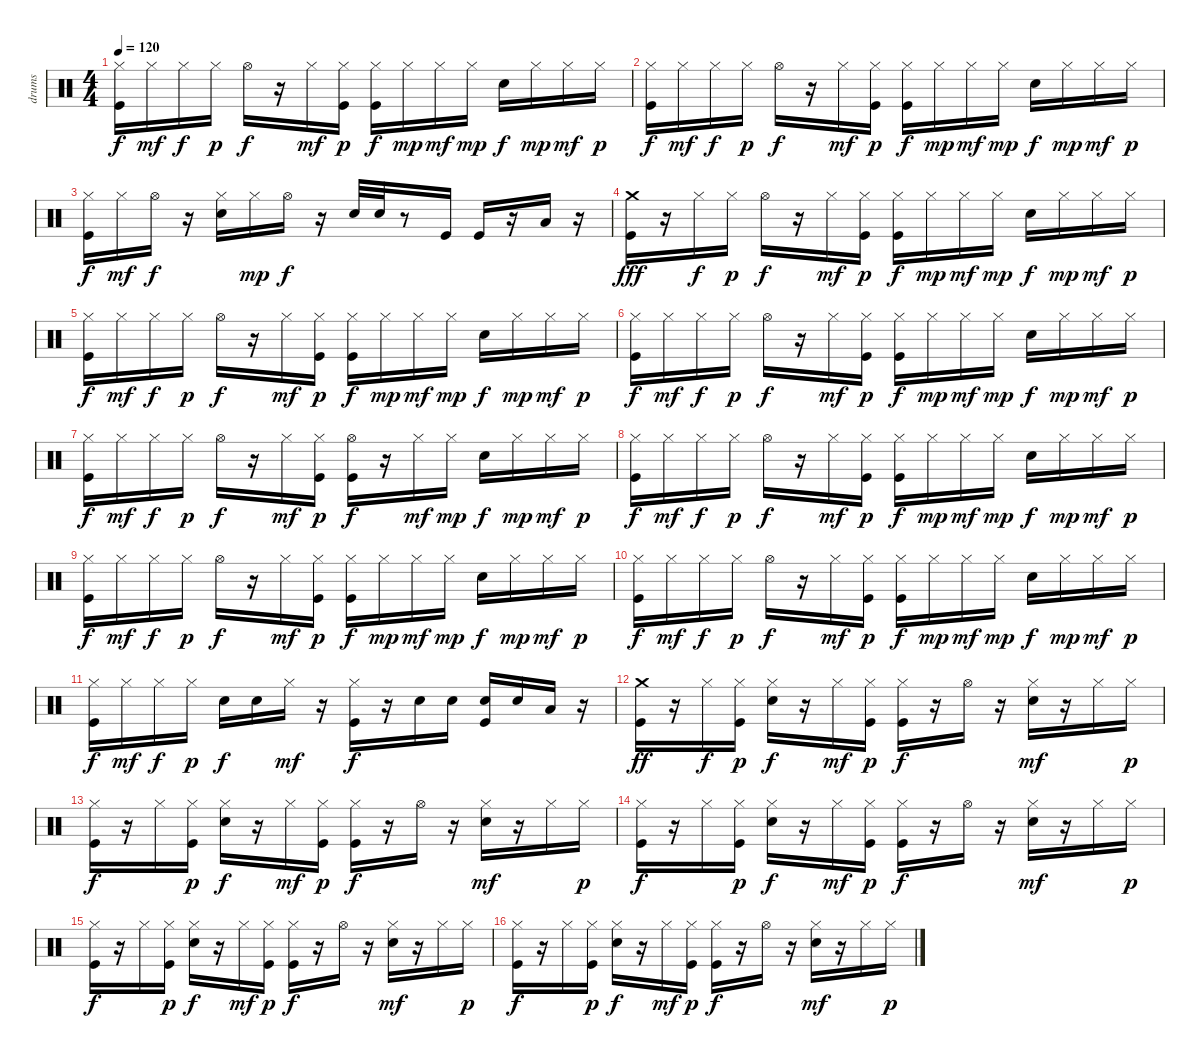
\track ("drums" "drums") {instrument percussion}
\staff {score}
\articulation defaults
\ts (4 4)
\tempo 120
\clef neutral
\ks c
("Kick (hit)" "Hi-Hat (closed)").16{dy f} "Hi-Hat (closed)".16{dy mf} "Hi-Hat (closed)".16{dy f} "Hi-Hat (closed)".16{dy p} "Hi-Hat (open)".16{dy f} r.16 "Hi-Hat (closed)".16{dy mf} ("Kick (hit)" "Hi-Hat (closed)").16{dy p} ("Kick (hit)" "Hi-Hat (closed)").16{dy f} "Hi-Hat (closed)".16{dy mp} "Hi-Hat (closed)".16{dy mf} "Hi-Hat (closed)".16{dy mp} "Electric Snare (hit)".16{dy f} "Hi-Hat (closed)".16{dy mp} "Hi-Hat (closed)".16{dy mf} "Hi-Hat (closed)".16{dy p} |
("Kick (hit)" "Hi-Hat (closed)").16{dy f} "Hi-Hat (closed)".16{dy mf} "Hi-Hat (closed)".16{dy f} "Hi-Hat (closed)".16{dy p} "Hi-Hat (open)".16{dy f} r.16 "Hi-Hat (closed)".16{dy mf} ("Kick (hit)" "Hi-Hat (closed)").16{dy p} ("Kick (hit)" "Hi-Hat (closed)").16{dy f} "Hi-Hat (closed)".16{dy mp} "Hi-Hat (closed)".16{dy mf} "Hi-Hat (closed)".16{dy mp} "Electric Snare (hit)".16{dy f} "Hi-Hat (closed)".16{dy mp} "Hi-Hat (closed)".16{dy mf} "Hi-Hat (closed)".16{dy p} |
("Kick (hit)" "Hi-Hat (closed)").16{dy f} "Hi-Hat (closed)".16{dy mf} "Hi-Hat (open)".16{dy f} r.16 ("Electric Snare (hit)" "Hi-Hat (closed)").16 "Hi-Hat (closed)".16{dy mp} "Hi-Hat (open)".16{dy f} r.16 "Electric Snare (hit)".32 "Electric Snare (hit)".32 r.8 "Kick (hit)".16 "Kick (hit)".16 r.16 "Low Tom (hit)".16 r.16 |
("Kick (hit)" "Crash medium (hit)").16{dy fff} r.16 "Hi-Hat (closed)".16{dy f} "Hi-Hat (closed)".16{dy p} "Hi-Hat (open)".16{dy f} r.16 "Hi-Hat (closed)".16{dy mf} ("Kick (hit)" "Hi-Hat (closed)").16{dy p} ("Kick (hit)" "Hi-Hat (closed)").16{dy f} "Hi-Hat (closed)".16{dy mp} "Hi-Hat (closed)".16{dy mf} "Hi-Hat (closed)".16{dy mp} "Electric Snare (hit)".16{dy f} "Hi-Hat (closed)".16{dy mp} "Hi-Hat (closed)".16{dy mf} "Hi-Hat (closed)".16{dy p} |
("Kick (hit)" "Hi-Hat (closed)").16{dy f} "Hi-Hat (closed)".16{dy mf} "Hi-Hat (closed)".16{dy f} "Hi-Hat (closed)".16{dy p} "Hi-Hat (open)".16{dy f} r.16 "Hi-Hat (closed)".16{dy mf} ("Kick (hit)" "Hi-Hat (closed)").16{dy p} ("Kick (hit)" "Hi-Hat (closed)").16{dy f} "Hi-Hat (closed)".16{dy mp} "Hi-Hat (closed)".16{dy mf} "Hi-Hat (closed)".16{dy mp} "Electric Snare (hit)".16{dy f} "Hi-Hat (closed)".16{dy mp} "Hi-Hat (closed)".16{dy mf} "Hi-Hat (closed)".16{dy p} |
("Kick (hit)" "Hi-Hat (closed)").16{dy f} "Hi-Hat (closed)".16{dy mf} "Hi-Hat (closed)".16{dy f} "Hi-Hat (closed)".16{dy p} "Hi-Hat (open)".16{dy f} r.16 "Hi-Hat (closed)".16{dy mf} ("Kick (hit)" "Hi-Hat (closed)").16{dy p} ("Kick (hit)" "Hi-Hat (closed)").16{dy f} "Hi-Hat (closed)".16{dy mp} "Hi-Hat (closed)".16{dy mf} "Hi-Hat (closed)".16{dy mp} "Electric Snare (hit)".16{dy f} "Hi-Hat (closed)".16{dy mp} "Hi-Hat (closed)".16{dy mf} "Hi-Hat (closed)".16{dy p} |
("Kick (hit)" "Hi-Hat (closed)").16{dy f} "Hi-Hat (closed)".16{dy mf} "Hi-Hat (closed)".16{dy f} "Hi-Hat (closed)".16{dy p} "Hi-Hat (open)".16{dy f} r.16 "Hi-Hat (closed)".16{dy mf} ("Kick (hit)" "Hi-Hat (closed)").16{dy p} ("Kick (hit)" "Hi-Hat (open)").16{dy f} r.16 "Hi-Hat (closed)".16{dy mf} "Hi-Hat (closed)".16{dy mp} "Electric Snare (hit)".16{dy f} "Hi-Hat (closed)".16{dy mp} "Hi-Hat (closed)".16{dy mf} "Hi-Hat (closed)".16{dy p} |
("Kick (hit)" "Hi-Hat (closed)").16{dy f} "Hi-Hat (closed)".16{dy mf} "Hi-Hat (closed)".16{dy f} "Hi-Hat (closed)".16{dy p} "Hi-Hat (open)".16{dy f} r.16 "Hi-Hat (closed)".16{dy mf} ("Kick (hit)" "Hi-Hat (closed)").16{dy p} ("Kick (hit)" "Hi-Hat (closed)").16{dy f} "Hi-Hat (closed)".16{dy mp} "Hi-Hat (closed)".16{dy mf} "Hi-Hat (closed)".16{dy mp} "Electric Snare (hit)".16{dy f} "Hi-Hat (closed)".16{dy mp} "Hi-Hat (closed)".16{dy mf} "Hi-Hat (closed)".16{dy p} |
("Kick (hit)" "Hi-Hat (closed)").16{dy f} "Hi-Hat (closed)".16{dy mf} "Hi-Hat (closed)".16{dy f} "Hi-Hat (closed)".16{dy p} "Hi-Hat (open)".16{dy f} r.16 "Hi-Hat (closed)".16{dy mf} ("Kick (hit)" "Hi-Hat (closed)").16{dy p} ("Kick (hit)" "Hi-Hat (closed)").16{dy f} "Hi-Hat (closed)".16{dy mp} "Hi-Hat (closed)".16{dy mf} "Hi-Hat (closed)".16{dy mp} "Electric Snare (hit)".16{dy f} "Hi-Hat (closed)".16{dy mp} "Hi-Hat (closed)".16{dy mf} "Hi-Hat (closed)".16{dy p} |
("Kick (hit)" "Hi-Hat (closed)").16{dy f} "Hi-Hat (closed)".16{dy mf} "Hi-Hat (closed)".16{dy f} "Hi-Hat (closed)".16{dy p} "Hi-Hat (open)".16{dy f} r.16 "Hi-Hat (closed)".16{dy mf} ("Kick (hit)" "Hi-Hat (closed)").16{dy p} ("Kick (hit)" "Hi-Hat (closed)").16{dy f} "Hi-Hat (closed)".16{dy mp} "Hi-Hat (closed)".16{dy mf} "Hi-Hat (closed)".16{dy mp} "Electric Snare (hit)".16{dy f} "Hi-Hat (closed)".16{dy mp} "Hi-Hat (closed)".16{dy mf} "Hi-Hat (closed)".16{dy p} |
("Kick (hit)" "Hi-Hat (closed)").16{dy f} "Hi-Hat (closed)".16{dy mf} "Hi-Hat (closed)".16{dy f} "Hi-Hat (closed)".16{dy p} "Electric Snare (hit)".16{dy f} "Electric Snare (hit)".16 "Hi-Hat (closed)".16{dy mf} r.16 ("Kick (hit)" "Hi-Hat (closed)").16{dy f} r.16 "Electric Snare (hit)".16 "Electric Snare (hit)".16 ("Electric Snare (hit)" "Kick (hit)").16 "Electric Snare (hit)".16 "Low Tom (hit)".16 r.16 |
("Kick (hit)" "Crash medium (hit)").16{dy ff} r.16 "Hi-Hat (closed)".16{dy f} ("Kick (hit)" "Hi-Hat (closed)").16{dy p} ("Electric Snare (hit)" "Hi-Hat (closed)").16{dy f} r.16 "Hi-Hat (closed)".16{dy mf} ("Kick (hit)" "Hi-Hat (closed)").16{dy p} ("Kick (hit)" "Hi-Hat (closed)").16{dy f} r.16 "Hi-Hat (open)".16 r.16 ("Electric Snare (hit)" "Hi-Hat (closed)").16{dy mf} r.16 "Hi-Hat (closed)".16 "Hi-Hat (closed)".16{dy p} |
("Kick (hit)" "Hi-Hat (closed)").16{dy f} r.16 "Hi-Hat (closed)".16 ("Kick (hit)" "Hi-Hat (closed)").16{dy p} ("Electric Snare (hit)" "Hi-Hat (closed)").16{dy f} r.16 "Hi-Hat (closed)".16{dy mf} ("Kick (hit)" "Hi-Hat (closed)").16{dy p} ("Kick (hit)" "Hi-Hat (closed)").16{dy f} r.16 "Hi-Hat (open)".16 r.16 ("Electric Snare (hit)" "Hi-Hat (closed)").16{dy mf} r.16 "Hi-Hat (closed)".16 "Hi-Hat (closed)".16{dy p} |
("Kick (hit)" "Hi-Hat (closed)").16{dy f} r.16 "Hi-Hat (closed)".16 ("Kick (hit)" "Hi-Hat (closed)").16{dy p} ("Electric Snare (hit)" "Hi-Hat (closed)").16{dy f} r.16 "Hi-Hat (closed)".16{dy mf} ("Kick (hit)" "Hi-Hat (closed)").16{dy p} ("Kick (hit)" "Hi-Hat (closed)").16{dy f} r.16 "Hi-Hat (open)".16 r.16 ("Electric Snare (hit)" "Hi-Hat (closed)").16{dy mf} r.16 "Hi-Hat (closed)".16 "Hi-Hat (closed)".16{dy p} |
("Kick (hit)" "Hi-Hat (closed)").16{dy f} r.16 "Hi-Hat (closed)".16 ("Kick (hit)" "Hi-Hat (closed)").16{dy p} ("Electric Snare (hit)" "Hi-Hat (closed)").16{dy f} r.16 "Hi-Hat (closed)".16{dy mf} ("Kick (hit)" "Hi-Hat (closed)").16{dy p} ("Kick (hit)" "Hi-Hat (closed)").16{dy f} r.16 "Hi-Hat (open)".16 r.16 ("Electric Snare (hit)" "Hi-Hat (closed)").16{dy mf} r.16 "Hi-Hat (closed)".16 "Hi-Hat (closed)".16{dy p} |
("Kick (hit)" "Hi-Hat (closed)").16{dy f} r.16 "Hi-Hat (closed)".16 ("Kick (hit)" "Hi-Hat (closed)").16{dy p} ("Electric Snare (hit)" "Hi-Hat (closed)").16{dy f} r.16 "Hi-Hat (closed)".16{dy mf} ("Kick (hit)" "Hi-Hat (closed)").16{dy p} ("Kick (hit)" "Hi-Hat (closed)").16{dy f} r.16 "Hi-Hat (open)".16 r.16 ("Electric Snare (hit)" "Hi-Hat (closed)").16{dy mf} r.16 "Hi-Hat (closed)".16 "Hi-Hat (closed)".16{dy p}
